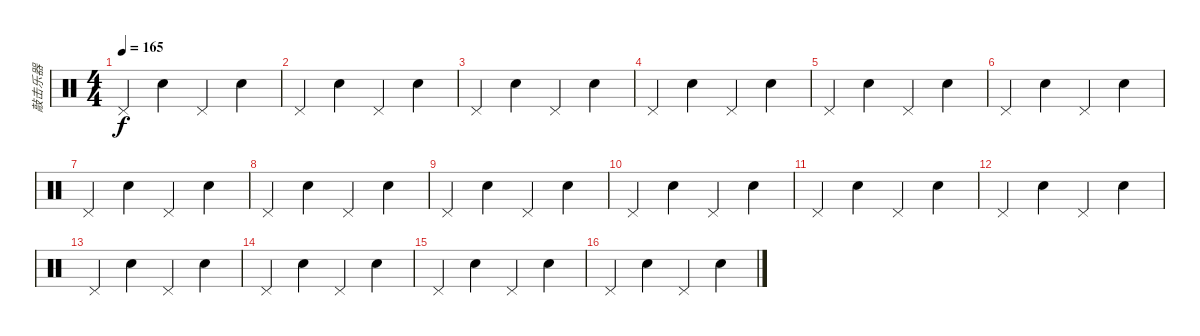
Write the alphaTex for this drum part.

\track ("敲击乐器" "敲击乐器") {instrument percussion}
\staff {score}
\articulation defaults
\ts (4 4)
\tempo 165
\clef neutral
\ks c "Pedal Hi-Hat (hit)".4{dy f} "Snare (hit) 2".4 "Pedal Hi-Hat (hit)".4 "Snare (hit) 2".4
|
"Pedal Hi-Hat (hit)".4 "Snare (hit) 2".4 "Pedal Hi-Hat (hit)".4 "Snare (hit) 2".4 |
"Pedal Hi-Hat (hit)".4 "Snare (hit) 2".4 "Pedal Hi-Hat (hit)".4 "Snare (hit) 2".4 |
"Pedal Hi-Hat (hit)".4 "Snare (hit) 2".4 "Pedal Hi-Hat (hit)".4 "Snare (hit) 2".4 |
"Pedal Hi-Hat (hit)".4 "Snare (hit) 2".4 "Pedal Hi-Hat (hit)".4 "Snare (hit) 2".4 |
"Pedal Hi-Hat (hit)".4 "Snare (hit) 2".4 "Pedal Hi-Hat (hit)".4 "Snare (hit) 2".4 |
"Pedal Hi-Hat (hit)".4 "Snare (hit) 2".4 "Pedal Hi-Hat (hit)".4 "Snare (hit) 2".4 |
"Pedal Hi-Hat (hit)".4 "Snare (hit) 2".4 "Pedal Hi-Hat (hit)".4 "Snare (hit) 2".4 |
"Pedal Hi-Hat (hit)".4 "Snare (hit) 2".4 "Pedal Hi-Hat (hit)".4 "Snare (hit) 2".4 |
"Pedal Hi-Hat (hit)".4 "Snare (hit) 2".4 "Pedal Hi-Hat (hit)".4 "Snare (hit) 2".4 |
"Pedal Hi-Hat (hit)".4 "Snare (hit) 2".4 "Pedal Hi-Hat (hit)".4 "Snare (hit) 2".4 |
"Pedal Hi-Hat (hit)".4 "Snare (hit) 2".4 "Pedal Hi-Hat (hit)".4 "Snare (hit) 2".4 |
"Pedal Hi-Hat (hit)".4 "Snare (hit) 2".4 "Pedal Hi-Hat (hit)".4 "Snare (hit) 2".4 |
"Pedal Hi-Hat (hit)".4 "Snare (hit) 2".4 "Pedal Hi-Hat (hit)".4 "Snare (hit) 2".4 |
"Pedal Hi-Hat (hit)".4 "Snare (hit) 2".4 "Pedal Hi-Hat (hit)".4 "Snare (hit) 2".4 |
"Pedal Hi-Hat (hit)".4 "Snare (hit) 2".4 "Pedal Hi-Hat (hit)".4 "Snare (hit) 2".4
